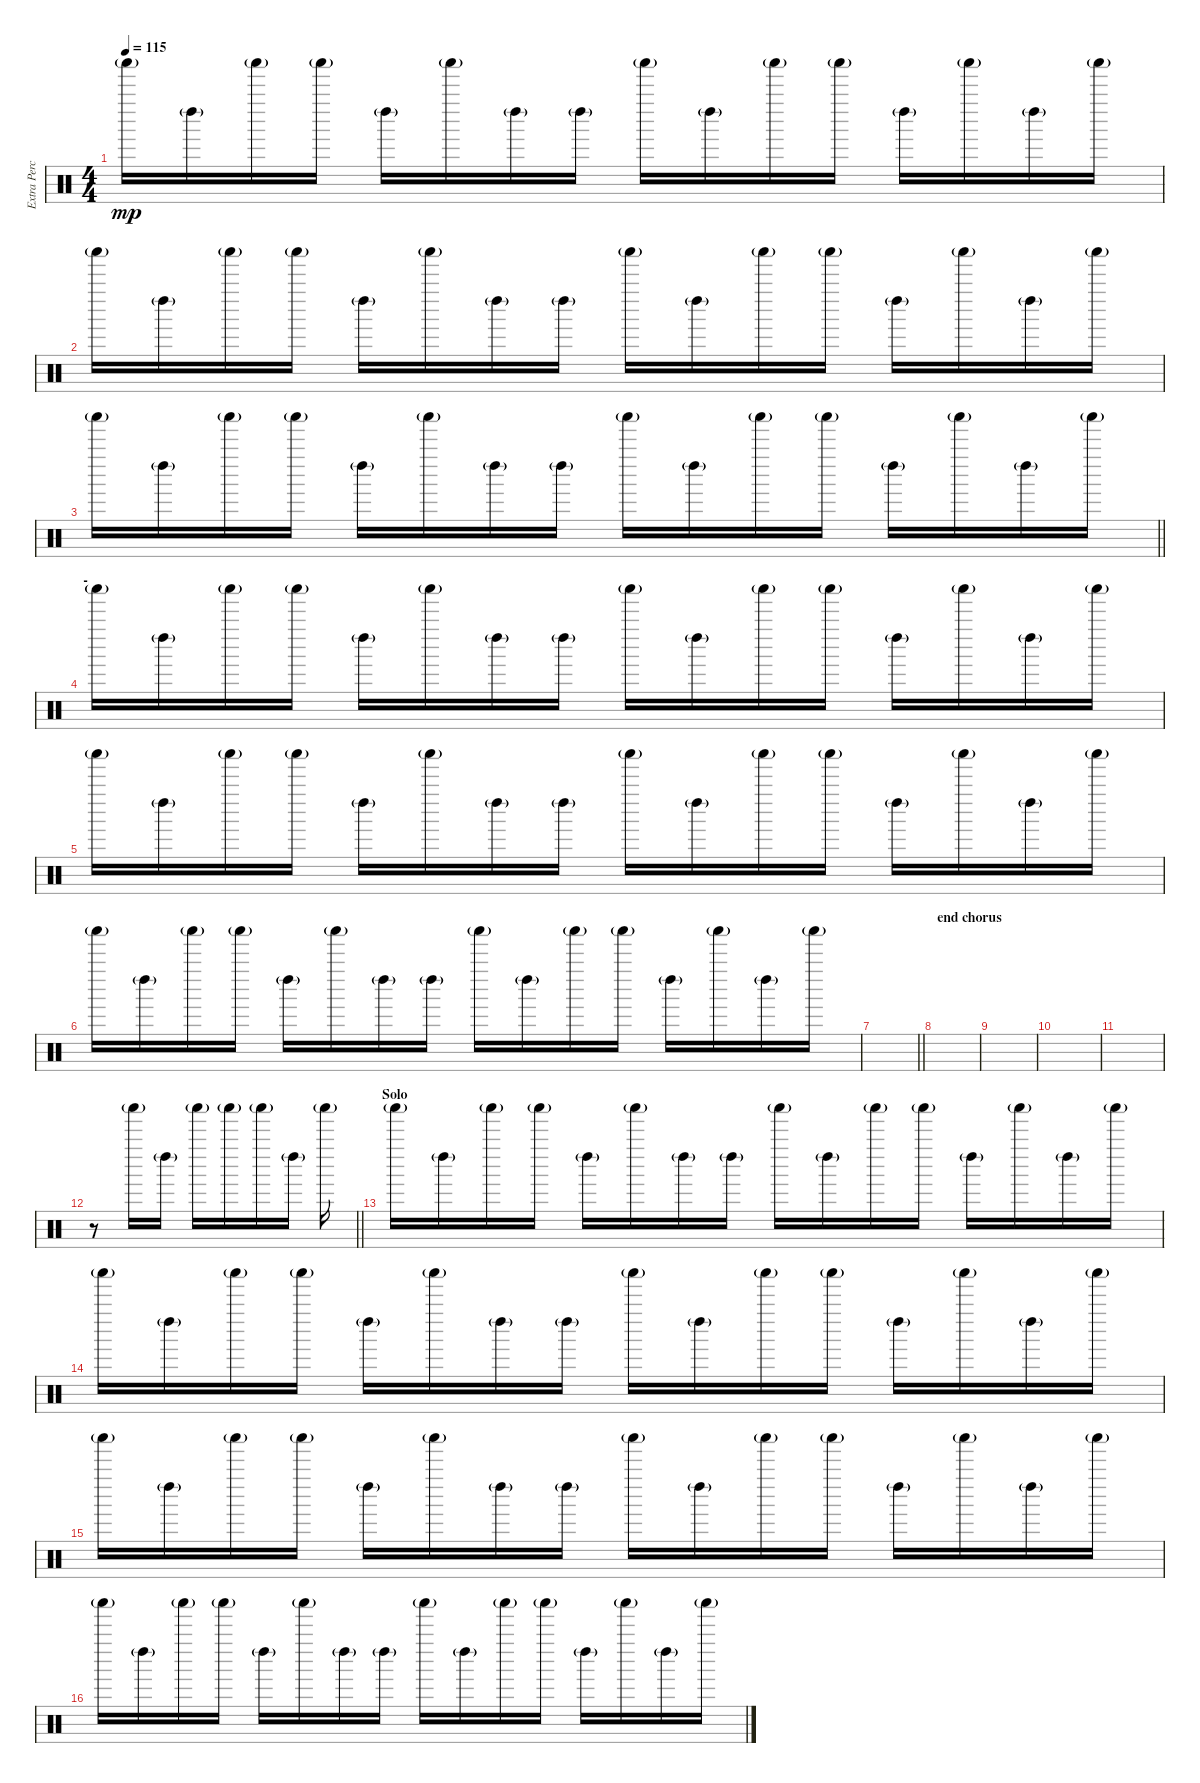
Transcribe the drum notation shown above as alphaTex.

\track ("Extra Percussion" "Extra Perc") {instrument percussion}
\staff {score}
\articulation defaults
\ts (4 4)
\tempo 115
\clef neutral
\ks c "Shaker (hit)"{g}.16{dy mp} "Left Maraca (hit)"{g}.16 "Shaker (hit)"{g}.16 "Shaker (hit)"{g}.16 "Left Maraca (hit)"{g}.16 "Shaker (hit)"{g}.16 "Left Maraca (hit)"{g}.16 "Left Maraca (hit)"{g}.16 "Shaker (hit)"{g}.16 "Left Maraca (hit)"{g}.16 "Shaker (hit)"{g}.16 "Shaker (hit)"{g}.16 "Left Maraca (hit)"{g}.16 "Shaker (hit)"{g}.16 "Left Maraca (hit)"{g}.16 "Shaker (hit)"{g}.16
|
"Shaker (hit)"{g}.16 "Left Maraca (hit)"{g}.16 "Shaker (hit)"{g}.16 "Shaker (hit)"{g}.16 "Left Maraca (hit)"{g}.16 "Shaker (hit)"{g}.16 "Left Maraca (hit)"{g}.16 "Left Maraca (hit)"{g}.16 "Shaker (hit)"{g}.16 "Left Maraca (hit)"{g}.16 "Shaker (hit)"{g}.16 "Shaker (hit)"{g}.16 "Left Maraca (hit)"{g}.16 "Shaker (hit)"{g}.16 "Left Maraca (hit)"{g}.16 "Shaker (hit)"{g}.16 |
\barLineRight lightlight "Shaker (hit)"{g}.16 "Left Maraca (hit)"{g}.16 "Shaker (hit)"{g}.16 "Shaker (hit)"{g}.16 "Left Maraca (hit)"{g}.16 "Shaker (hit)"{g}.16 "Left Maraca (hit)"{g}.16 "Left Maraca (hit)"{g}.16 "Shaker (hit)"{g}.16 "Left Maraca (hit)"{g}.16 "Shaker (hit)"{g}.16 "Shaker (hit)"{g}.16 "Left Maraca (hit)"{g}.16 "Shaker (hit)"{g}.16 "Left Maraca (hit)"{g}.16 "Shaker (hit)"{g}.16
|
\section ("" "-")
"Shaker (hit)"{g}.16 "Left Maraca (hit)"{g}.16 "Shaker (hit)"{g}.16 "Shaker (hit)"{g}.16 "Left Maraca (hit)"{g}.16 "Shaker (hit)"{g}.16 "Left Maraca (hit)"{g}.16 "Left Maraca (hit)"{g}.16 "Shaker (hit)"{g}.16 "Left Maraca (hit)"{g}.16 "Shaker (hit)"{g}.16 "Shaker (hit)"{g}.16 "Left Maraca (hit)"{g}.16 "Shaker (hit)"{g}.16 "Left Maraca (hit)"{g}.16 "Shaker (hit)"{g}.16 |
"Shaker (hit)"{g}.16 "Left Maraca (hit)"{g}.16 "Shaker (hit)"{g}.16 "Shaker (hit)"{g}.16 "Left Maraca (hit)"{g}.16 "Shaker (hit)"{g}.16 "Left Maraca (hit)"{g}.16 "Left Maraca (hit)"{g}.16 "Shaker (hit)"{g}.16 "Left Maraca (hit)"{g}.16 "Shaker (hit)"{g}.16 "Shaker (hit)"{g}.16 "Left Maraca (hit)"{g}.16 "Shaker (hit)"{g}.16 "Left Maraca (hit)"{g}.16 "Shaker (hit)"{g}.16 |
"Shaker (hit)"{g}.16 "Left Maraca (hit)"{g}.16 "Shaker (hit)"{g}.16 "Shaker (hit)"{g}.16 "Left Maraca (hit)"{g}.16 "Shaker (hit)"{g}.16 "Left Maraca (hit)"{g}.16 "Left Maraca (hit)"{g}.16 "Shaker (hit)"{g}.16 "Left Maraca (hit)"{g}.16 "Shaker (hit)"{g}.16 "Shaker (hit)"{g}.16 "Left Maraca (hit)"{g}.16 "Shaker (hit)"{g}.16 "Left Maraca (hit)"{g}.16 "Shaker (hit)"{g}.16 |
\barLineRight lightlight
|
\section ("" "end chorus")
|
|
|
|
\barLineRight lightlight
r.8 "Shaker (hit)"{g}.16 "Left Maraca (hit)"{g}.16 "Shaker (hit)"{g}.16 "Shaker (hit)"{g}.16 "Shaker (hit)"{g}.16 "Left Maraca (hit)"{g}.16 "Shaker (hit)"{g}.16 |
\section ("" "Solo")
"Shaker (hit)"{g}.16{volume 2} "Left Maraca (hit)"{g}.16 "Shaker (hit)"{g}.16 "Shaker (hit)"{g}.16 "Left Maraca (hit)"{g}.16 "Shaker (hit)"{g}.16 "Left Maraca (hit)"{g}.16 "Left Maraca (hit)"{g}.16 "Shaker (hit)"{g}.16 "Left Maraca (hit)"{g}.16 "Shaker (hit)"{g}.16 "Shaker (hit)"{g}.16 "Left Maraca (hit)"{g}.16 "Shaker (hit)"{g}.16 "Left Maraca (hit)"{g}.16 "Shaker (hit)"{g}.16 |
"Shaker (hit)"{g}.16 "Left Maraca (hit)"{g}.16 "Shaker (hit)"{g}.16 "Shaker (hit)"{g}.16 "Left Maraca (hit)"{g}.16 "Shaker (hit)"{g}.16 "Left Maraca (hit)"{g}.16 "Left Maraca (hit)"{g}.16 "Shaker (hit)"{g}.16 "Left Maraca (hit)"{g}.16 "Shaker (hit)"{g}.16 "Shaker (hit)"{g}.16 "Left Maraca (hit)"{g}.16 "Shaker (hit)"{g}.16 "Left Maraca (hit)"{g}.16 "Shaker (hit)"{g}.16 |
"Shaker (hit)"{g}.16 "Left Maraca (hit)"{g}.16 "Shaker (hit)"{g}.16 "Shaker (hit)"{g}.16 "Left Maraca (hit)"{g}.16 "Shaker (hit)"{g}.16 "Left Maraca (hit)"{g}.16 "Left Maraca (hit)"{g}.16 "Shaker (hit)"{g}.16 "Left Maraca (hit)"{g}.16 "Shaker (hit)"{g}.16 "Shaker (hit)"{g}.16 "Left Maraca (hit)"{g}.16 "Shaker (hit)"{g}.16 "Left Maraca (hit)"{g}.16 "Shaker (hit)"{g}.16 |
"Shaker (hit)"{g}.16 "Left Maraca (hit)"{g}.16 "Shaker (hit)"{g}.16 "Shaker (hit)"{g}.16 "Left Maraca (hit)"{g}.16 "Shaker (hit)"{g}.16 "Left Maraca (hit)"{g}.16 "Left Maraca (hit)"{g}.16 "Shaker (hit)"{g}.16 "Left Maraca (hit)"{g}.16 "Shaker (hit)"{g}.16 "Shaker (hit)"{g}.16 "Left Maraca (hit)"{g}.16 "Shaker (hit)"{g}.16 "Left Maraca (hit)"{g}.16 "Shaker (hit)"{g}.16
